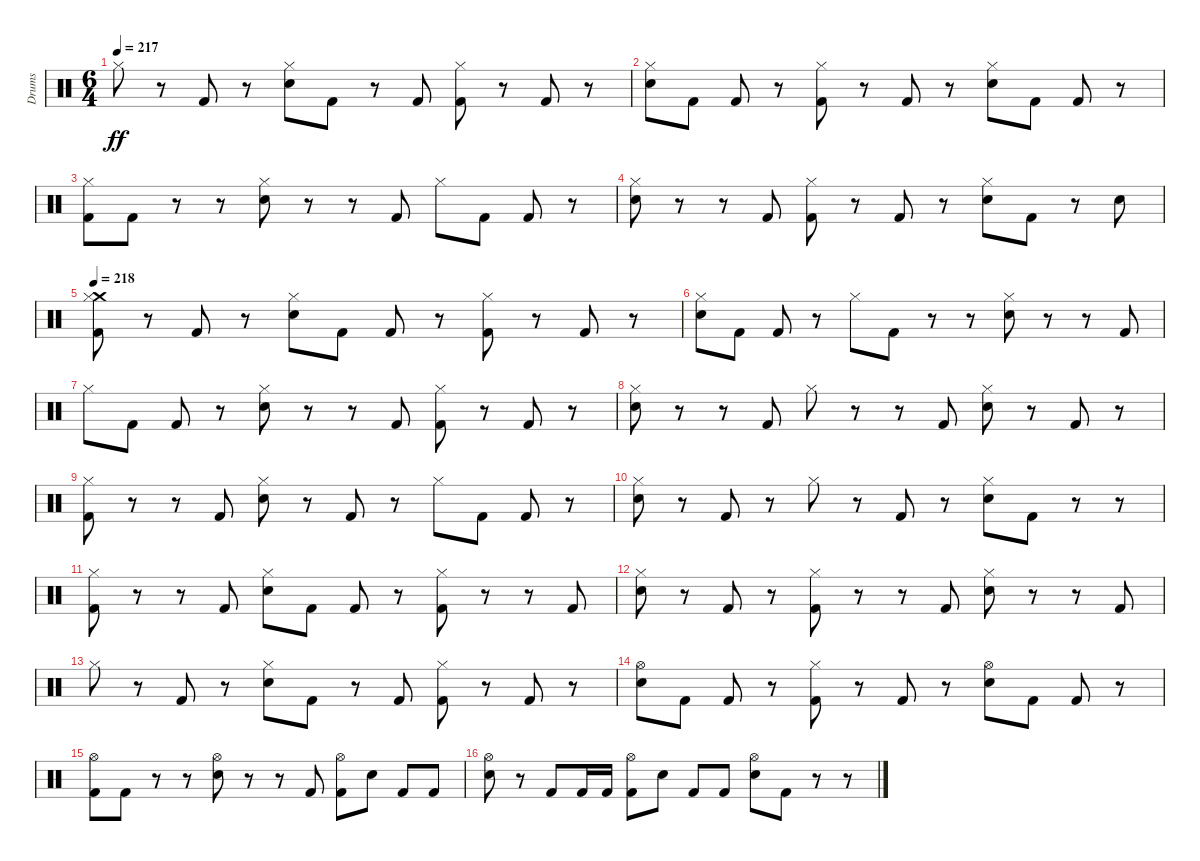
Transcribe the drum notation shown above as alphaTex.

\track ("Drums" "Drums") {instrument percussion}
\staff {score}
\articulation defaults
\ts (6 4)
\tempo 217
\clef neutral
\ks c "Hi-Hat (closed)".8{dy ff}
r.8 "Kick (hit) 2".8 r.8 ("Hi-Hat (closed)" "Electric Snare (hit)").8 "Kick (hit) 2".8 r.8 "Kick (hit) 2".8 ("Hi-Hat (closed)" "Kick (hit) 2").8 r.8 "Kick (hit) 2".8 r.8 |
("Hi-Hat (closed)" "Electric Snare (hit)").8 "Kick (hit) 2".8 "Kick (hit) 2".8 r.8 ("Hi-Hat (closed)" "Kick (hit) 2").8 r.8 "Kick (hit) 2".8 r.8 ("Hi-Hat (closed)" "Electric Snare (hit)").8 "Kick (hit) 2".8 "Kick (hit) 2".8 r.8 |
("Hi-Hat (closed)" "Kick (hit) 2").8 "Kick (hit) 2".8 r.8 r.8 ("Hi-Hat (closed)" "Electric Snare (hit)").8 r.8 r.8 "Kick (hit) 2".8 "Hi-Hat (closed)".8 "Kick (hit) 2".8 "Kick (hit) 2".8 r.8 |
("Hi-Hat (closed)" "Electric Snare (hit)").8 r.8 r.8 "Kick (hit) 2".8 ("Hi-Hat (closed)" "Kick (hit) 2").8 r.8 "Kick (hit) 2".8 r.8 ("Hi-Hat (closed)" "Electric Snare (hit)").8 "Kick (hit) 2".8 r.8 "Electric Snare (hit)".8 |
\tempo 218
("Crash medium (hit)" "Hi-Hat (closed)" "Kick (hit) 2").8 r.8 "Kick (hit) 2".8 r.8 ("Hi-Hat (closed)" "Electric Snare (hit)").8 "Kick (hit) 2".8 "Kick (hit) 2".8 r.8 ("Hi-Hat (closed)" "Kick (hit) 2").8 r.8 "Kick (hit) 2".8 r.8 |
("Hi-Hat (closed)" "Electric Snare (hit)").8 "Kick (hit) 2".8 "Kick (hit) 2".8 r.8 "Hi-Hat (closed)".8 "Kick (hit) 2".8 r.8 r.8 ("Hi-Hat (closed)" "Electric Snare (hit)").8 r.8 r.8 "Kick (hit) 2".8 |
"Hi-Hat (closed)".8 "Kick (hit) 2".8 "Kick (hit) 2".8 r.8 ("Hi-Hat (closed)" "Electric Snare (hit)").8 r.8 r.8 "Kick (hit) 2".8 ("Hi-Hat (closed)" "Kick (hit) 2").8 r.8 "Kick (hit) 2".8 r.8 |
("Hi-Hat (closed)" "Electric Snare (hit)").8 r.8 r.8 "Kick (hit) 2".8 "Hi-Hat (closed)".8 r.8 r.8 "Kick (hit) 2".8 ("Hi-Hat (closed)" "Electric Snare (hit)").8 r.8 "Kick (hit) 2".8 r.8 |
("Hi-Hat (closed)" "Kick (hit) 2").8 r.8 r.8 "Kick (hit) 2".8 ("Hi-Hat (closed)" "Electric Snare (hit)").8 r.8 "Kick (hit) 2".8 r.8 "Hi-Hat (closed)".8 "Kick (hit) 2".8 "Kick (hit) 2".8 r.8 |
("Hi-Hat (closed)" "Electric Snare (hit)").8 r.8 "Kick (hit) 2".8 r.8 "Hi-Hat (closed)".8 r.8 "Kick (hit) 2".8 r.8 ("Hi-Hat (closed)" "Electric Snare (hit)").8 "Kick (hit) 2".8 r.8 r.8 |
("Hi-Hat (closed)" "Kick (hit) 2").8 r.8 r.8 "Kick (hit) 2".8 ("Hi-Hat (closed)" "Electric Snare (hit)").8 "Kick (hit) 2".8 "Kick (hit) 2".8 r.8 ("Hi-Hat (closed)" "Kick (hit) 2").8 r.8 r.8 "Kick (hit) 2".8 |
("Hi-Hat (closed)" "Electric Snare (hit)").8 r.8 "Kick (hit) 2".8 r.8 ("Hi-Hat (closed)" "Kick (hit) 2").8 r.8 r.8 "Kick (hit) 2".8 ("Hi-Hat (closed)" "Electric Snare (hit)").8 r.8 r.8 "Kick (hit) 2".8 |
"Hi-Hat (closed)".8 r.8 "Kick (hit) 2".8 r.8 ("Hi-Hat (closed)" "Electric Snare (hit)").8 "Kick (hit) 2".8 r.8 "Kick (hit) 2".8 ("Hi-Hat (closed)" "Kick (hit) 2").8 r.8 "Kick (hit) 2".8 r.8 |
("Hi-Hat (open)" "Electric Snare (hit)").8 "Kick (hit) 2".8 "Kick (hit) 2".8 r.8 ("Hi-Hat (closed)" "Kick (hit) 2").8 r.8 "Kick (hit) 2".8 r.8 ("Hi-Hat (open)" "Electric Snare (hit)").8 "Kick (hit) 2".8 "Kick (hit) 2".8 r.8 |
("Hi-Hat (open)" "Kick (hit) 2").8 "Kick (hit) 2".8 r.8 r.8 ("Hi-Hat (open)" "Electric Snare (hit)").8 r.8 r.8 "Kick (hit) 2".8 ("Hi-Hat (open)" "Kick (hit) 2").8 "Electric Snare (hit)".8 "Kick (hit) 2".8 "Kick (hit) 2".8 |
("Hi-Hat (open)" "Electric Snare (hit)").8 r.8 "Kick (hit) 2".8 "Kick (hit) 2".16 "Kick (hit) 2".16 ("Hi-Hat (open)" "Kick (hit) 2").8 "Electric Snare (hit)".8 "Kick (hit) 2".8 "Kick (hit) 2".8 ("Hi-Hat (open)" "Electric Snare (hit)").8 "Kick (hit) 2".8 r.8 r.8
